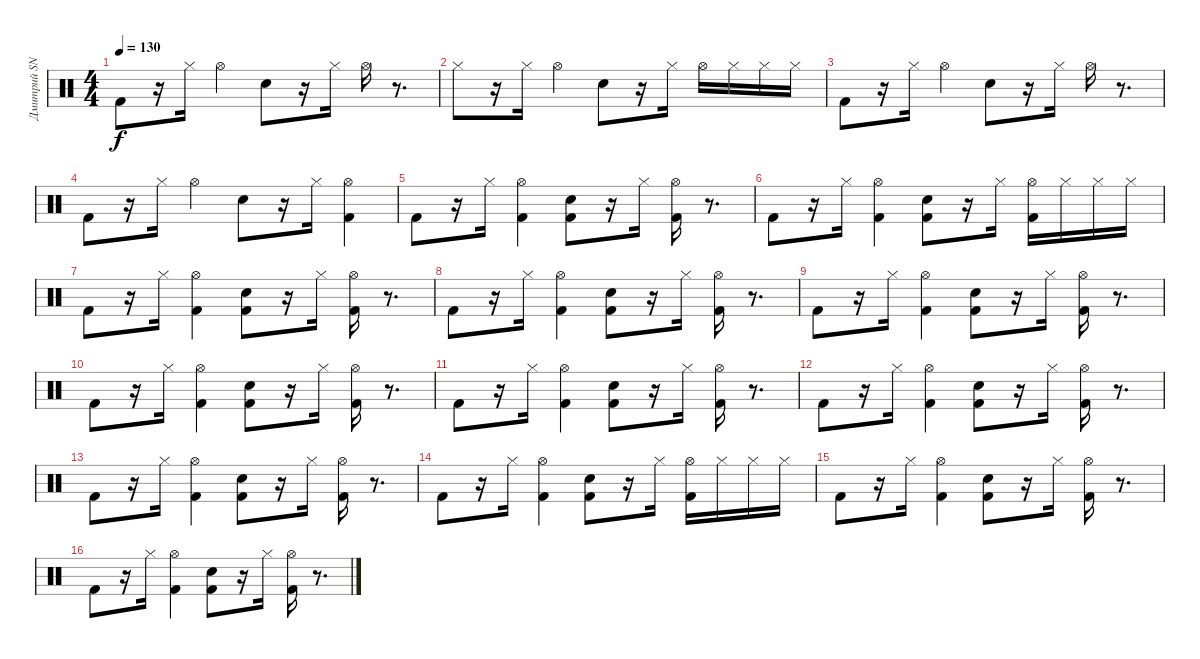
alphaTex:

\track ("Дмитрий SNAKE Хакимов (ударные)" "Дмитрий SN") {instrument percussion}
\staff {score}
\articulation defaults
\ts (4 4)
\tempo 130
\clef neutral
\ks c "Kick (hit) 2".8{dy f}
r.16 "Hi-Hat (closed)".16 "Hi-Hat (open)".4 "Snare (hit) 2".8 r.16 "Hi-Hat (closed)".16 "Hi-Hat (open)".16 r.8{d} |
"Hi-Hat (closed)".8 r.16 "Hi-Hat (closed)".16 "Hi-Hat (open)".4 "Snare (hit) 2".8 r.16 "Hi-Hat (closed)".16 "Hi-Hat (open)".16 "Hi-Hat (closed)".16 "Hi-Hat (closed)".16 "Hi-Hat (closed)".16 |
"Kick (hit) 2".8 r.16 "Hi-Hat (closed)".16 "Hi-Hat (open)".4 "Snare (hit) 2".8 r.16 "Hi-Hat (closed)".16 "Hi-Hat (open)".16 r.8{d} |
"Kick (hit) 2".8 r.16 "Hi-Hat (closed)".16 "Hi-Hat (open)".4 "Snare (hit) 2".8 r.16 "Hi-Hat (closed)".16 ("Hi-Hat (open)" "Kick (hit) 2").4 |
"Kick (hit) 2".8 r.16 "Hi-Hat (closed)".16 ("Hi-Hat (open)" "Kick (hit) 2").4 ("Snare (hit) 2" "Kick (hit) 2").8 r.16 "Hi-Hat (closed)".16 ("Hi-Hat (open)" "Kick (hit) 2").16 r.8{d} |
"Kick (hit) 2".8 r.16 "Hi-Hat (closed)".16 ("Hi-Hat (open)" "Kick (hit) 2").4 ("Snare (hit) 2" "Kick (hit) 2").8 r.16 "Hi-Hat (closed)".16 ("Hi-Hat (open)" "Kick (hit) 2").16 "Hi-Hat (closed)".16 "Hi-Hat (closed)".16 "Hi-Hat (closed)".16 |
"Kick (hit) 2".8 r.16 "Hi-Hat (closed)".16 ("Hi-Hat (open)" "Kick (hit) 2").4 ("Snare (hit) 2" "Kick (hit) 2").8 r.16 "Hi-Hat (closed)".16 ("Hi-Hat (open)" "Kick (hit) 2").16 r.8{d} |
"Kick (hit) 2".8 r.16 "Hi-Hat (closed)".16 ("Hi-Hat (open)" "Kick (hit) 2").4 ("Snare (hit) 2" "Kick (hit) 2").8 r.16 "Hi-Hat (closed)".16 ("Hi-Hat (open)" "Kick (hit) 2").16 r.8{d} |
"Kick (hit) 2".8 r.16 "Hi-Hat (closed)".16 ("Hi-Hat (open)" "Kick (hit) 2").4 ("Snare (hit) 2" "Kick (hit) 2").8 r.16 "Hi-Hat (closed)".16 ("Hi-Hat (open)" "Kick (hit) 2").16 r.8{d} |
"Kick (hit) 2".8 r.16 "Hi-Hat (closed)".16 ("Hi-Hat (open)" "Kick (hit) 2").4 ("Snare (hit) 2" "Kick (hit) 2").8 r.16 "Hi-Hat (closed)".16 ("Hi-Hat (open)" "Kick (hit) 2").16 r.8{d} |
"Kick (hit) 2".8 r.16 "Hi-Hat (closed)".16 ("Hi-Hat (open)" "Kick (hit) 2").4 ("Snare (hit) 2" "Kick (hit) 2").8 r.16 "Hi-Hat (closed)".16 ("Hi-Hat (open)" "Kick (hit) 2").16 r.8{d} |
"Kick (hit) 2".8 r.16 "Hi-Hat (closed)".16 ("Hi-Hat (open)" "Kick (hit) 2").4 ("Snare (hit) 2" "Kick (hit) 2").8 r.16 "Hi-Hat (closed)".16 ("Hi-Hat (open)" "Kick (hit) 2").16 r.8{d} |
"Kick (hit) 2".8 r.16 "Hi-Hat (closed)".16 ("Hi-Hat (open)" "Kick (hit) 2").4 ("Snare (hit) 2" "Kick (hit) 2").8 r.16 "Hi-Hat (closed)".16 ("Hi-Hat (open)" "Kick (hit) 2").16 r.8{d} |
"Kick (hit) 2".8 r.16 "Hi-Hat (closed)".16 ("Hi-Hat (open)" "Kick (hit) 2").4 ("Snare (hit) 2" "Kick (hit) 2").8 r.16 "Hi-Hat (closed)".16 ("Hi-Hat (open)" "Kick (hit) 2").16 "Hi-Hat (closed)".16 "Hi-Hat (closed)".16 "Hi-Hat (closed)".16 |
"Kick (hit) 2".8 r.16 "Hi-Hat (closed)".16 ("Hi-Hat (open)" "Kick (hit) 2").4 ("Snare (hit) 2" "Kick (hit) 2").8 r.16 "Hi-Hat (closed)".16 ("Hi-Hat (open)" "Kick (hit) 2").16 r.8{d} |
"Kick (hit) 2".8 r.16 "Hi-Hat (closed)".16 ("Hi-Hat (open)" "Kick (hit) 2").4 ("Snare (hit) 2" "Kick (hit) 2").8 r.16 "Hi-Hat (closed)".16 ("Hi-Hat (open)" "Kick (hit) 2").16 r.8{d}
